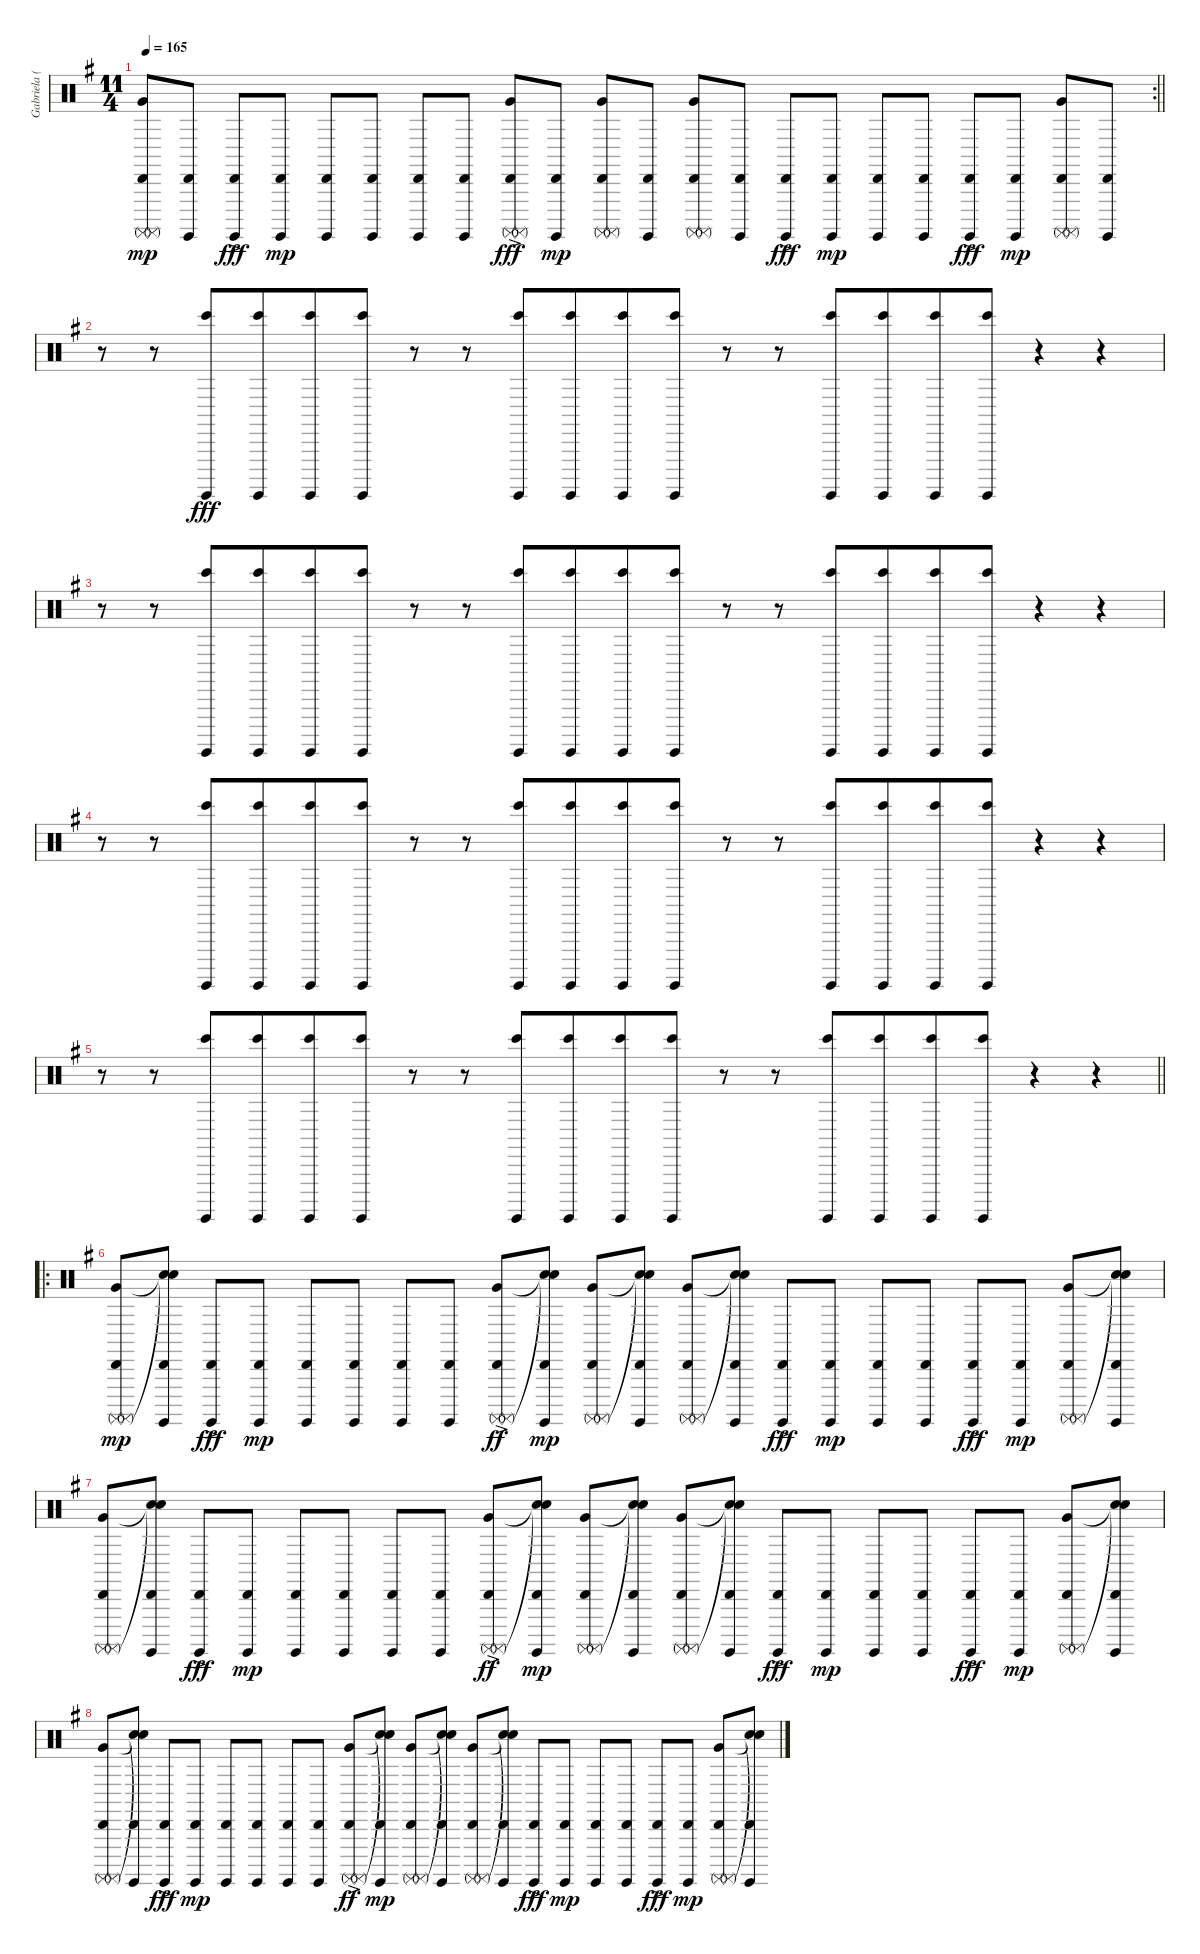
\track ("Gabriela (Guitar Percussion)" "Gabriela (") {instrument percussion}
\staff {score}
\articulation defaults
\rc 2
\ts (11 4)
\tempo 165
\clef neutral
\barLineRight lightlight
\ks g
("Very Low Tom (hit)" "Surdo (mute)" "Surdo (mute)" "Cabasa (hit)").8{dy mp} ("Surdo (hit)" "Cabasa (hit)").8 ("Surdo (hit)" "Cabasa (hit)"{ac}).8{dy fff} ("Surdo (hit)" "Cabasa (hit)").8{dy mp} ("Surdo (hit)" "Cabasa (hit)").8 ("Surdo (hit)" "Cabasa (hit)").8 ("Surdo (hit)" "Cabasa (hit)").8 ("Surdo (hit)" "Cabasa (hit)").8 ("Very Low Tom (hit)" "Surdo (mute)" "Surdo (mute)" "Cabasa (hit)"{ac}).8{dy fff} ("Surdo (hit)" "Cabasa (hit)").8{dy mp} ("Very Low Tom (hit)" "Surdo (mute)" "Surdo (mute)" "Cabasa (hit)").8 ("Surdo (hit)" "Cabasa (hit)").8 ("Very Low Tom (hit)" "Surdo (mute)" "Surdo (mute)" "Cabasa (hit)").8 ("Surdo (hit)" "Cabasa (hit)").8 ("Surdo (hit)" "Cabasa (hit)"{ac}).8{dy fff} ("Surdo (hit)" "Cabasa (hit)").8{dy mp} ("Surdo (hit)" "Cabasa (hit)").8 ("Surdo (hit)" "Cabasa (hit)").8 ("Surdo (hit)" "Cabasa (hit)"{ac}).8{dy fff} ("Surdo (hit)" "Cabasa (hit)").8{dy mp} ("Very Low Tom (hit)" "Surdo (mute)" "Surdo (mute)" "Cabasa (hit)").8 ("Surdo (hit)" "Cabasa (hit)").8 |
r.8 r.8 ("Bongo High (hit)" "Surdo (hit)").8{dy fff} ("Bongo High (hit)" "Surdo (hit)").8{beam merge} ("Bongo High (hit)" "Surdo (hit)").8 ("Bongo High (hit)" "Surdo (hit)").8 r.8 r.8 ("Bongo High (hit)" "Surdo (hit)").8 ("Bongo High (hit)" "Surdo (hit)").8{beam merge} ("Bongo High (hit)" "Surdo (hit)").8 ("Bongo High (hit)" "Surdo (hit)").8 r.8 r.8 ("Bongo High (hit)" "Surdo (hit)").8 ("Bongo High (hit)" "Surdo (hit)").8{beam merge} ("Bongo High (hit)" "Surdo (hit)").8 ("Bongo High (hit)" "Surdo (hit)").8 r.4 r.4 |
r.8 r.8 ("Bongo High (hit)" "Surdo (hit)").8 ("Bongo High (hit)" "Surdo (hit)").8{beam merge} ("Bongo High (hit)" "Surdo (hit)").8 ("Bongo High (hit)" "Surdo (hit)").8 r.8 r.8 ("Bongo High (hit)" "Surdo (hit)").8 ("Bongo High (hit)" "Surdo (hit)").8{beam merge} ("Bongo High (hit)" "Surdo (hit)").8 ("Bongo High (hit)" "Surdo (hit)").8 r.8 r.8 ("Bongo High (hit)" "Surdo (hit)").8 ("Bongo High (hit)" "Surdo (hit)").8{beam merge} ("Bongo High (hit)" "Surdo (hit)").8 ("Bongo High (hit)" "Surdo (hit)").8 r.4 r.4 |
r.8 r.8 ("Bongo High (hit)" "Surdo (hit)").8 ("Bongo High (hit)" "Surdo (hit)").8{beam merge} ("Bongo High (hit)" "Surdo (hit)").8 ("Bongo High (hit)" "Surdo (hit)").8 r.8 r.8 ("Bongo High (hit)" "Surdo (hit)").8 ("Bongo High (hit)" "Surdo (hit)").8{beam merge} ("Bongo High (hit)" "Surdo (hit)").8 ("Bongo High (hit)" "Surdo (hit)").8 r.8 r.8 ("Bongo High (hit)" "Surdo (hit)").8 ("Bongo High (hit)" "Surdo (hit)").8{beam merge} ("Bongo High (hit)" "Surdo (hit)").8 ("Bongo High (hit)" "Surdo (hit)").8 r.4 r.4 |
\barLineRight lightlight
r.8 r.8 ("Bongo High (hit)" "Surdo (hit)").8 ("Bongo High (hit)" "Surdo (hit)").8{beam merge} ("Bongo High (hit)" "Surdo (hit)").8 ("Bongo High (hit)" "Surdo (hit)").8 r.8 r.8 ("Bongo High (hit)" "Surdo (hit)").8 ("Bongo High (hit)" "Surdo (hit)").8{beam merge} ("Bongo High (hit)" "Surdo (hit)").8 ("Bongo High (hit)" "Surdo (hit)").8 r.8 r.8 ("Bongo High (hit)" "Surdo (hit)").8 ("Bongo High (hit)" "Surdo (hit)").8{beam merge} ("Bongo High (hit)" "Surdo (hit)").8 ("Bongo High (hit)" "Surdo (hit)").8 r.4 r.4 |
\ro
("Very Low Tom (hit)" "Surdo (mute)" "Surdo (mute)" "Cabasa (hit)").8{dy mp} ("Snare (hit)"{t} "Snare (hit)"{t} "Surdo (hit)" "Cabasa (hit)").8 ("Surdo (hit)" "Cabasa (hit)"{ac}).8{dy fff} ("Surdo (hit)" "Cabasa (hit)").8{dy mp} ("Surdo (hit)" "Cabasa (hit)").8 ("Surdo (hit)" "Cabasa (hit)").8 ("Surdo (hit)" "Cabasa (hit)").8 ("Surdo (hit)" "Cabasa (hit)").8 ("Very Low Tom (hit)" "Surdo (mute)" "Surdo (mute)" "Cabasa (hit)"{ac}).8{dy ff} ("Snare (hit)"{t} "Snare (hit)"{t} "Surdo (hit)" "Cabasa (hit)").8{dy mp} ("Very Low Tom (hit)" "Surdo (mute)" "Surdo (mute)" "Cabasa (hit)").8 ("Snare (hit)"{t} "Snare (hit)"{t} "Surdo (hit)" "Cabasa (hit)").8 ("Very Low Tom (hit)" "Surdo (mute)" "Surdo (mute)" "Cabasa (hit)").8 ("Snare (hit)"{t} "Snare (hit)"{t} "Surdo (hit)" "Cabasa (hit)").8 ("Surdo (hit)" "Cabasa (hit)"{ac}).8{dy fff} ("Surdo (hit)" "Cabasa (hit)").8{dy mp} ("Surdo (hit)" "Cabasa (hit)").8 ("Surdo (hit)" "Cabasa (hit)").8 ("Surdo (hit)" "Cabasa (hit)"{ac}).8{dy fff} ("Surdo (hit)" "Cabasa (hit)").8{dy mp} ("Very Low Tom (hit)" "Surdo (mute)" "Surdo (mute)" "Cabasa (hit)").8 ("Snare (hit)"{t} "Snare (hit)"{t} "Surdo (hit)" "Cabasa (hit)").8 |
("Very Low Tom (hit)" "Surdo (mute)" "Surdo (mute)" "Cabasa (hit)").8 ("Snare (hit)"{t} "Snare (hit)"{t} "Surdo (hit)" "Cabasa (hit)").8 ("Surdo (hit)" "Cabasa (hit)"{ac}).8{dy fff} ("Surdo (hit)" "Cabasa (hit)").8{dy mp} ("Surdo (hit)" "Cabasa (hit)").8 ("Surdo (hit)" "Cabasa (hit)").8 ("Surdo (hit)" "Cabasa (hit)").8 ("Surdo (hit)" "Cabasa (hit)").8 ("Very Low Tom (hit)" "Surdo (mute)" "Surdo (mute)" "Cabasa (hit)"{ac}).8{dy ff} ("Snare (hit)"{t} "Snare (hit)"{t} "Surdo (hit)" "Cabasa (hit)").8{dy mp} ("Very Low Tom (hit)" "Surdo (mute)" "Surdo (mute)" "Cabasa (hit)").8 ("Snare (hit)"{t} "Snare (hit)"{t} "Surdo (hit)" "Cabasa (hit)").8 ("Very Low Tom (hit)" "Surdo (mute)" "Surdo (mute)" "Cabasa (hit)").8 ("Snare (hit)"{t} "Snare (hit)"{t} "Surdo (hit)" "Cabasa (hit)").8 ("Surdo (hit)" "Cabasa (hit)"{ac}).8{dy fff} ("Surdo (hit)" "Cabasa (hit)").8{dy mp} ("Surdo (hit)" "Cabasa (hit)").8 ("Surdo (hit)" "Cabasa (hit)").8 ("Surdo (hit)" "Cabasa (hit)"{ac}).8{dy fff} ("Surdo (hit)" "Cabasa (hit)").8{dy mp} ("Very Low Tom (hit)" "Surdo (mute)" "Surdo (mute)" "Cabasa (hit)").8 ("Snare (hit)"{t} "Snare (hit)"{t} "Surdo (hit)" "Cabasa (hit)").8 |
("Very Low Tom (hit)" "Surdo (mute)" "Surdo (mute)" "Cabasa (hit)").8 ("Snare (hit)"{t} "Snare (hit)"{t} "Surdo (hit)" "Cabasa (hit)").8 ("Surdo (hit)" "Cabasa (hit)"{ac}).8{dy fff} ("Surdo (hit)" "Cabasa (hit)").8{dy mp} ("Surdo (hit)" "Cabasa (hit)").8 ("Surdo (hit)" "Cabasa (hit)").8 ("Surdo (hit)" "Cabasa (hit)").8 ("Surdo (hit)" "Cabasa (hit)").8 ("Very Low Tom (hit)" "Surdo (mute)" "Surdo (mute)" "Cabasa (hit)"{ac}).8{dy ff} ("Snare (hit)"{t} "Snare (hit)"{t} "Surdo (hit)" "Cabasa (hit)").8{dy mp} ("Very Low Tom (hit)" "Surdo (mute)" "Surdo (mute)" "Cabasa (hit)").8 ("Snare (hit)"{t} "Snare (hit)"{t} "Surdo (hit)" "Cabasa (hit)").8 ("Very Low Tom (hit)" "Surdo (mute)" "Surdo (mute)" "Cabasa (hit)").8 ("Snare (hit)"{t} "Snare (hit)"{t} "Surdo (hit)" "Cabasa (hit)").8 ("Surdo (hit)" "Cabasa (hit)"{ac}).8{dy fff} ("Surdo (hit)" "Cabasa (hit)").8{dy mp} ("Surdo (hit)" "Cabasa (hit)").8 ("Surdo (hit)" "Cabasa (hit)").8 ("Surdo (hit)" "Cabasa (hit)"{ac}).8{dy fff} ("Surdo (hit)" "Cabasa (hit)").8{dy mp} ("Very Low Tom (hit)" "Surdo (mute)" "Surdo (mute)" "Cabasa (hit)").8 ("Snare (hit)"{t} "Snare (hit)"{t} "Surdo (hit)" "Cabasa (hit)").8
